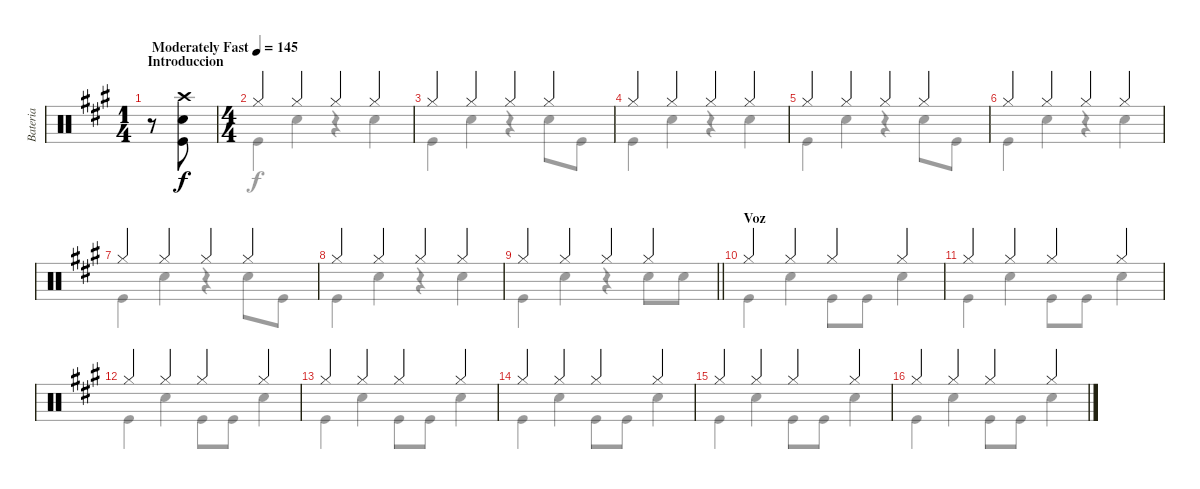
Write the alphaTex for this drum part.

\track ("Bateria" "Bateria") {instrument percussion}
\staff {score}
\articulation defaults
\voice
\ts (1 4)
\section ("" "Introduccion")
\tempo (145 "Moderately Fast")
\clef neutral
\ks a
r.8{dy f} ("Crash high (hit)" "Snare (hit) 2" "Kick (hit)").8 |
\ts (4 4)
"Hi-Hat (closed)".4 "Hi-Hat (closed)".4 "Hi-Hat (closed)".4 "Hi-Hat (closed)".4 |
"Hi-Hat (closed)".4 "Hi-Hat (closed)".4 "Hi-Hat (closed)".4 "Hi-Hat (closed)".4 |
"Hi-Hat (closed)".4 "Hi-Hat (closed)".4 "Hi-Hat (closed)".4 "Hi-Hat (closed)".4 |
"Hi-Hat (closed)".4 "Hi-Hat (closed)".4 "Hi-Hat (closed)".4 "Hi-Hat (closed)".4 |
"Hi-Hat (closed)".4 "Hi-Hat (closed)".4 "Hi-Hat (closed)".4 "Hi-Hat (closed)".4 |
"Hi-Hat (closed)".4 "Hi-Hat (closed)".4 "Hi-Hat (closed)".4 "Hi-Hat (closed)".4 |
"Hi-Hat (closed)".4 "Hi-Hat (closed)".4 "Hi-Hat (closed)".4 "Hi-Hat (closed)".4 |
\barLineRight lightlight "Hi-Hat (closed)".4 "Hi-Hat (closed)".4 "Hi-Hat (closed)".4 "Hi-Hat (closed)".4
|
\section ("" "Voz")
"Hi-Hat (closed)".4 "Hi-Hat (closed)".4 "Hi-Hat (closed)".4 "Hi-Hat (closed)".4 |
"Hi-Hat (closed)".4 "Hi-Hat (closed)".4 "Hi-Hat (closed)".4 "Hi-Hat (closed)".4 |
"Hi-Hat (closed)".4 "Hi-Hat (closed)".4 "Hi-Hat (closed)".4 "Hi-Hat (closed)".4 |
"Hi-Hat (closed)".4 "Hi-Hat (closed)".4 "Hi-Hat (closed)".4 "Hi-Hat (closed)".4 |
"Hi-Hat (closed)".4 "Hi-Hat (closed)".4 "Hi-Hat (closed)".4 "Hi-Hat (closed)".4 |
"Hi-Hat (closed)".4 "Hi-Hat (closed)".4 "Hi-Hat (closed)".4 "Hi-Hat (closed)".4 |
"Hi-Hat (closed)".4 "Hi-Hat (closed)".4 "Hi-Hat (closed)".4 "Hi-Hat (closed)".4
\voice
\clef neutral
\ottava regular
\simile none
\ks a
|
"Kick (hit)".4 "Snare (hit) 2".4 r.4 "Snare (hit) 2".4 |
"Kick (hit)".4 "Snare (hit) 2".4 r.4 "Snare (hit) 2".8 "Kick (hit)".8 |
"Kick (hit)".4 "Snare (hit) 2".4 r.4 "Snare (hit) 2".4 |
"Kick (hit)".4 "Snare (hit) 2".4 r.4 "Snare (hit) 2".8 "Kick (hit)".8 |
"Kick (hit)".4 "Snare (hit) 2".4 r.4 "Snare (hit) 2".4 |
"Kick (hit)".4 "Snare (hit) 2".4 r.4 "Snare (hit) 2".8 "Kick (hit)".8 |
"Kick (hit)".4 "Snare (hit) 2".4 r.4 "Snare (hit) 2".4 |
\barLineRight lightlight "Kick (hit)".4 "Snare (hit) 2".4
r.4 "Snare (hit) 2".8 "Snare (hit) 2".8 |
"Kick (hit)".4 "Snare (hit) 2".4 "Kick (hit)".8 "Kick (hit)".8 "Snare (hit) 2".4 |
"Kick (hit)".4 "Snare (hit) 2".4 "Kick (hit)".8 "Kick (hit)".8 "Snare (hit) 2".4 |
"Kick (hit)".4 "Snare (hit) 2".4 "Kick (hit)".8 "Kick (hit)".8 "Snare (hit) 2".4 |
"Kick (hit)".4 "Snare (hit) 2".4 "Kick (hit)".8 "Kick (hit)".8 "Snare (hit) 2".4 |
"Kick (hit)".4 "Snare (hit) 2".4 "Kick (hit)".8 "Kick (hit)".8 "Snare (hit) 2".4 |
"Kick (hit)".4 "Snare (hit) 2".4 "Kick (hit)".8 "Kick (hit)".8 "Snare (hit) 2".4 |
"Kick (hit)".4 "Snare (hit) 2".4 "Kick (hit)".8 "Kick (hit)".8 "Snare (hit) 2".4
